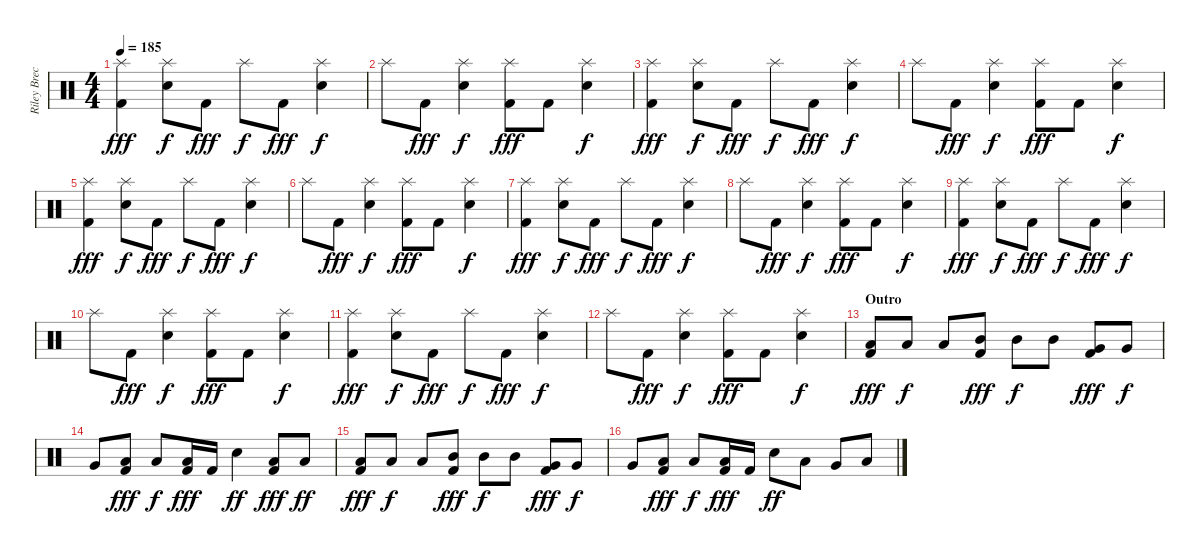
\track ("Riley Breckenridge (Drums)" "Riley Brec") {instrument percussion}
\staff {score}
\articulation defaults
\ts (4 4)
\tempo 185
\clef neutral
\ks c
("Splash (hit)" "Kick (hit) 2").4{dy fff} ("Splash (hit)" "Electric Snare (hit)").8{dy f} "Kick (hit) 2".8{dy fff} "Splash (hit)".8{dy f} "Kick (hit) 2".8{dy fff} ("Splash (hit)" "Electric Snare (hit)").4{dy f} |
"Splash (hit)".8 "Kick (hit) 2".8{dy fff} ("Splash (hit)" "Electric Snare (hit)").4{dy f} ("Splash (hit)" "Kick (hit) 2").8{dy fff} "Kick (hit) 2".8 ("Splash (hit)" "Electric Snare (hit)").4{dy f} |
("Splash (hit)" "Kick (hit) 2").4{dy fff} ("Splash (hit)" "Electric Snare (hit)").8{dy f} "Kick (hit) 2".8{dy fff} "Splash (hit)".8{dy f} "Kick (hit) 2".8{dy fff} ("Splash (hit)" "Electric Snare (hit)").4{dy f} |
"Splash (hit)".8 "Kick (hit) 2".8{dy fff} ("Splash (hit)" "Electric Snare (hit)").4{dy f} ("Splash (hit)" "Kick (hit) 2").8{dy fff} "Kick (hit) 2".8 ("Splash (hit)" "Electric Snare (hit)").4{dy f} |
("Splash (hit)" "Kick (hit) 2").4{dy fff} ("Splash (hit)" "Electric Snare (hit)").8{dy f} "Kick (hit) 2".8{dy fff} "Splash (hit)".8{dy f} "Kick (hit) 2".8{dy fff} ("Splash (hit)" "Electric Snare (hit)").4{dy f} |
"Splash (hit)".8 "Kick (hit) 2".8{dy fff} ("Splash (hit)" "Electric Snare (hit)").4{dy f} ("Splash (hit)" "Kick (hit) 2").8{dy fff} "Kick (hit) 2".8 ("Splash (hit)" "Electric Snare (hit)").4{dy f} |
("Splash (hit)" "Kick (hit) 2").4{dy fff} ("Splash (hit)" "Electric Snare (hit)").8{dy f} "Kick (hit) 2".8{dy fff} "Splash (hit)".8{dy f} "Kick (hit) 2".8{dy fff} ("Splash (hit)" "Electric Snare (hit)").4{dy f} |
"Splash (hit)".8 "Kick (hit) 2".8{dy fff} ("Splash (hit)" "Electric Snare (hit)").4{dy f} ("Splash (hit)" "Kick (hit) 2").8{dy fff} "Kick (hit) 2".8 ("Splash (hit)" "Electric Snare (hit)").4{dy f} |
("Splash (hit)" "Kick (hit) 2").4{dy fff} ("Splash (hit)" "Electric Snare (hit)").8{dy f} "Kick (hit) 2".8{dy fff} "Splash (hit)".8{dy f} "Kick (hit) 2".8{dy fff} ("Splash (hit)" "Electric Snare (hit)").4{dy f} |
"Splash (hit)".8 "Kick (hit) 2".8{dy fff} ("Splash (hit)" "Electric Snare (hit)").4{dy f} ("Splash (hit)" "Kick (hit) 2").8{dy fff} "Kick (hit) 2".8 ("Splash (hit)" "Electric Snare (hit)").4{dy f} |
("Splash (hit)" "Kick (hit) 2").4{dy fff} ("Splash (hit)" "Electric Snare (hit)").8{dy f} "Kick (hit) 2".8{dy fff} "Splash (hit)".8{dy f} "Kick (hit) 2".8{dy fff} ("Splash (hit)" "Electric Snare (hit)").4{dy f} |
"Splash (hit)".8 "Kick (hit) 2".8{dy fff} ("Splash (hit)" "Electric Snare (hit)").4{dy f} ("Splash (hit)" "Kick (hit) 2").8{dy fff} "Kick (hit) 2".8 ("Splash (hit)" "Electric Snare (hit)").4{dy f} |
\section ("" "Outro")
("Low Tom (hit)" "Kick (hit) 2").8{dy fff} "Low Tom (hit)".8{dy f} "Low Tom (hit)".8 ("Mid Tom (hit)" "Kick (hit) 2").8{dy fff} "Mid Tom (hit)".8{dy f} "Mid Tom (hit)".8 ("Very Low Tom (hit)" "Kick (hit) 2").8{dy fff} "Very Low Tom (hit)".8{dy f} |
"Very Low Tom (hit)".8 ("Low Tom (hit)" "Kick (hit) 2").8{dy fff} "Low Tom (hit)".8{dy f} ("Low Tom (hit)" "Kick (hit) 2").16{dy fff} "Kick (hit) 2".16 "Electric Snare (hit)".4{dy ff} ("Low Tom (hit)" "Kick (hit) 2").8{dy fff} "Low Tom (hit)".8{dy ff} |
("Low Tom (hit)" "Kick (hit) 2").8{dy fff} "Low Tom (hit)".8{dy f} "Low Tom (hit)".8 ("Mid Tom (hit)" "Kick (hit) 2").8{dy fff} "Mid Tom (hit)".8{dy f} "Mid Tom (hit)".8 ("Very Low Tom (hit)" "Kick (hit) 2").8{dy fff} "Very Low Tom (hit)".8{dy f} |
"Very Low Tom (hit)".8 ("Low Tom (hit)" "Kick (hit) 2").8{dy fff} "Low Tom (hit)".8{dy f} ("Low Tom (hit)" "Kick (hit) 2").16{dy fff} "Kick (hit) 2".16 "Electric Snare (hit)".8{dy ff} "Low Tom (hit)".8 "Very Low Tom (hit)".8 "Low Floor Tom (hit)".8
